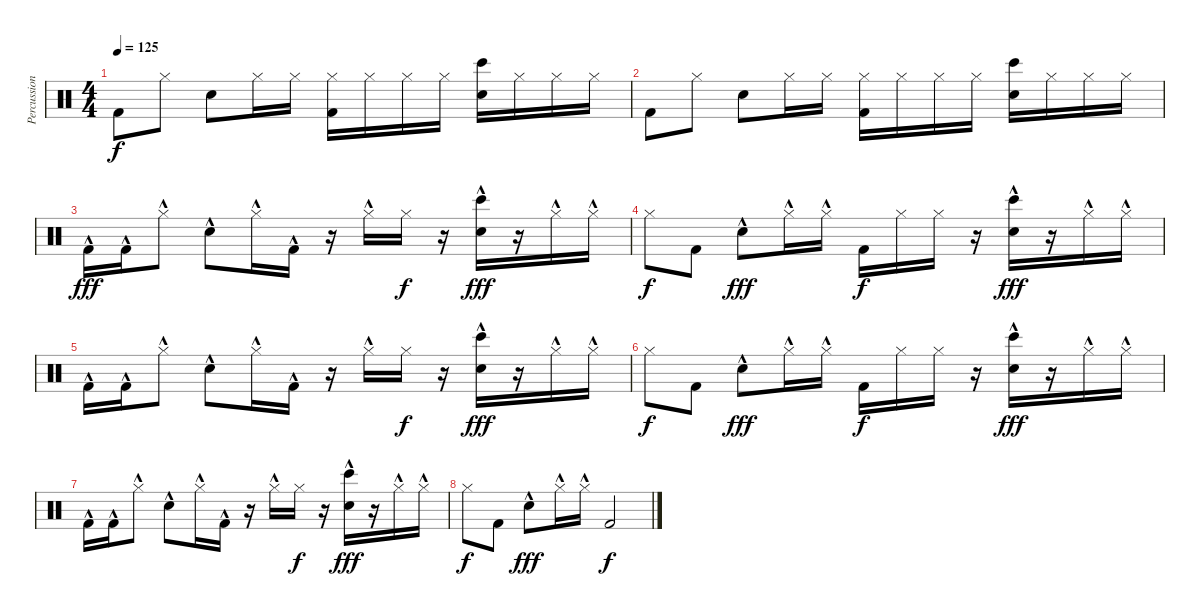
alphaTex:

\track ("Percussion" "Percussion") {instrument percussion}
\staff {score}
\articulation defaults
\ts (4 4)
\tempo 125
\clef neutral
\ks c "Kick (hit) 2".8{dy f} "Hi-Hat (closed)".8 "Snare (hit) 2".8 "Hi-Hat (closed)".16 "Hi-Hat (closed)".16
("Hi-Hat (closed)" "Kick (hit) 2").16 "Hi-Hat (closed)".16 "Hi-Hat (closed)".16 "Hi-Hat (closed)".16 ("Bongo High (hit)" "Snare (hit) 2").16 "Hi-Hat (closed)".16 "Hi-Hat (closed)".16 "Hi-Hat (closed)".16 |
"Kick (hit) 2".8 "Hi-Hat (closed)".8 "Snare (hit) 2".8 "Hi-Hat (closed)".16 "Hi-Hat (closed)".16 ("Hi-Hat (closed)" "Kick (hit) 2").16 "Hi-Hat (closed)".16 "Hi-Hat (closed)".16 "Hi-Hat (closed)".16 ("Bongo High (hit)" "Snare (hit) 2").16 "Hi-Hat (closed)".16 "Hi-Hat (closed)".16 "Hi-Hat (closed)".16 |
"Kick (hit) 2"{hac}.16{dy fff} "Kick (hit) 2"{hac}.16 "Hi-Hat (closed)"{hac}.8 "Snare (hit) 2"{hac}.8 "Hi-Hat (closed)"{hac}.16 "Kick (hit) 2"{hac}.16 r.16 "Hi-Hat (closed)"{hac}.16 "Hi-Hat (closed)".16{dy f} r.16 ("Bongo High (hit)"{hac} "Snare (hit) 2"{hac}).16{dy fff} r.16 "Hi-Hat (closed)"{hac}.16 "Hi-Hat (closed)"{hac}.16 |
"Hi-Hat (closed)".8{dy f} "Kick (hit) 2".8 "Snare (hit) 2"{hac}.8{dy fff} "Hi-Hat (closed)"{hac}.16 "Hi-Hat (closed)"{hac}.16 "Kick (hit) 2".16{dy f} "Hi-Hat (closed)".16 "Hi-Hat (closed)".16 r.16 ("Bongo High (hit)"{hac} "Snare (hit) 2"{hac}).16{dy fff} r.16 "Hi-Hat (closed)"{hac}.16 "Hi-Hat (closed)"{hac}.16 |
"Kick (hit) 2"{hac}.16 "Kick (hit) 2"{hac}.16 "Hi-Hat (closed)"{hac}.8 "Snare (hit) 2"{hac}.8 "Hi-Hat (closed)"{hac}.16 "Kick (hit) 2"{hac}.16 r.16 "Hi-Hat (closed)"{hac}.16 "Hi-Hat (closed)".16{dy f} r.16 ("Bongo High (hit)"{hac} "Snare (hit) 2"{hac}).16{dy fff} r.16 "Hi-Hat (closed)"{hac}.16 "Hi-Hat (closed)"{hac}.16 |
"Hi-Hat (closed)".8{dy f} "Kick (hit) 2".8 "Snare (hit) 2"{hac}.8{dy fff} "Hi-Hat (closed)"{hac}.16 "Hi-Hat (closed)"{hac}.16 "Kick (hit) 2".16{dy f} "Hi-Hat (closed)".16 "Hi-Hat (closed)".16 r.16 ("Bongo High (hit)"{hac} "Snare (hit) 2"{hac}).16{dy fff} r.16 "Hi-Hat (closed)"{hac}.16 "Hi-Hat (closed)"{hac}.16 |
"Kick (hit) 2"{hac}.16 "Kick (hit) 2"{hac}.16 "Hi-Hat (closed)"{hac}.8 "Snare (hit) 2"{hac}.8 "Hi-Hat (closed)"{hac}.16 "Kick (hit) 2"{hac}.16 r.16 "Hi-Hat (closed)"{hac}.16 "Hi-Hat (closed)".16{dy f} r.16 ("Bongo High (hit)"{hac} "Snare (hit) 2"{hac}).16{dy fff} r.16 "Hi-Hat (closed)"{hac}.16 "Hi-Hat (closed)"{hac}.16 |
"Hi-Hat (closed)".8{dy f} "Kick (hit) 2".8 "Snare (hit) 2"{hac}.8{dy fff} "Hi-Hat (closed)"{hac}.16 "Hi-Hat (closed)"{hac}.16 "Kick (hit) 2".2{dy f}
